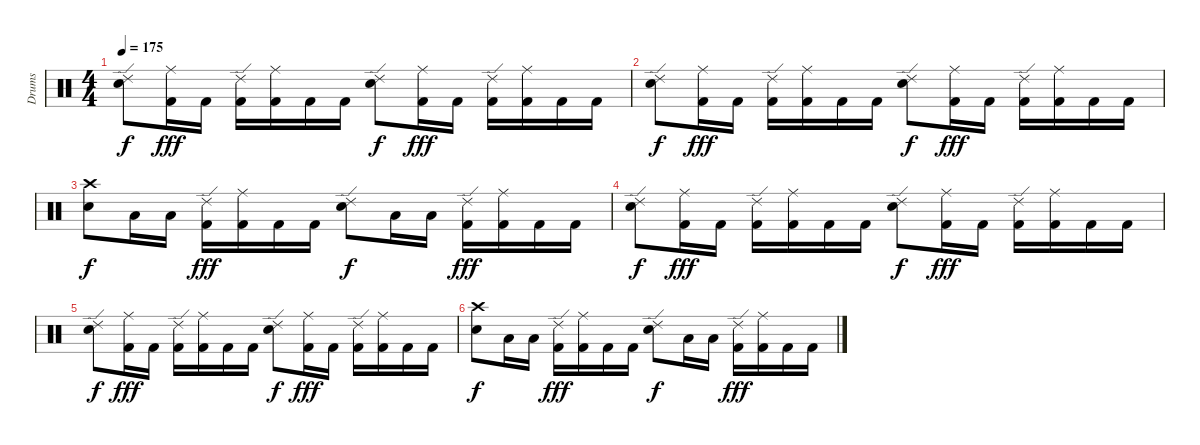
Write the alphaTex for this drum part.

\track ("Drums" "Drums") {instrument percussion}
\staff {score}
\articulation defaults
\ts (4 4)
\tempo 175
\clef neutral
\ks c
("Ride (edge) 2" "Electric Snare (hit)").8{dy f volume 10} ("Ride (middle)" "Kick (hit) 2").16{dy fff} "Kick (hit) 2".16 ("Ride (edge) 2" "Kick (hit) 2").16 ("Ride (middle)" "Kick (hit) 2").16 "Kick (hit) 2".16 "Kick (hit) 2".16 ("Ride (edge) 2" "Electric Snare (hit)").8{dy f} ("Ride (middle)" "Kick (hit) 2").16{dy fff} "Kick (hit) 2".16 ("Ride (edge) 2" "Kick (hit) 2").16 ("Ride (middle)" "Kick (hit) 2").16 "Kick (hit) 2".16 "Kick (hit) 2".16 |
("Ride (edge) 2" "Electric Snare (hit)").8{dy f} ("Ride (middle)" "Kick (hit) 2").16{dy fff} "Kick (hit) 2".16 ("Ride (edge) 2" "Kick (hit) 2").16 ("Ride (middle)" "Kick (hit) 2").16 "Kick (hit) 2".16 "Kick (hit) 2".16 ("Ride (edge) 2" "Electric Snare (hit)").8{dy f} ("Ride (middle)" "Kick (hit) 2").16{dy fff} "Kick (hit) 2".16 ("Ride (edge) 2" "Kick (hit) 2").16 ("Ride (middle)" "Kick (hit) 2").16 "Kick (hit) 2".16 "Kick (hit) 2".16 |
("Crash high (hit)" "Electric Snare (hit)").8{dy f volume 4} "Low Tom (hit)".16 "Low Tom (hit)".16 ("Ride (edge) 2" "Kick (hit) 2").16{dy fff} ("Ride (middle)" "Kick (hit) 2").16 "Kick (hit) 2".16 "Kick (hit) 2".16 ("Ride (edge) 2" "Electric Snare (hit)").8{dy f} "Low Tom (hit)".16 "Low Tom (hit)".16 ("Ride (edge) 2" "Kick (hit) 2").16{dy fff} ("Ride (middle)" "Kick (hit) 2").16 "Kick (hit) 2".16 "Kick (hit) 2".16 |
("Ride (edge) 2" "Electric Snare (hit)").8{dy f} ("Ride (middle)" "Kick (hit) 2").16{dy fff} "Kick (hit) 2".16 ("Ride (edge) 2" "Kick (hit) 2").16 ("Ride (middle)" "Kick (hit) 2").16 "Kick (hit) 2".16 "Kick (hit) 2".16 ("Ride (edge) 2" "Electric Snare (hit)").8{dy f} ("Ride (middle)" "Kick (hit) 2").16{dy fff} "Kick (hit) 2".16 ("Ride (edge) 2" "Kick (hit) 2").16 ("Ride (middle)" "Kick (hit) 2").16 "Kick (hit) 2".16 "Kick (hit) 2".16 |
("Ride (edge) 2" "Electric Snare (hit)").8{dy f volume 4} ("Ride (middle)" "Kick (hit) 2").16{dy fff} "Kick (hit) 2".16 ("Ride (edge) 2" "Kick (hit) 2").16 ("Ride (middle)" "Kick (hit) 2").16 "Kick (hit) 2".16 "Kick (hit) 2".16 ("Ride (edge) 2" "Electric Snare (hit)").8{dy f} ("Ride (middle)" "Kick (hit) 2").16{dy fff} "Kick (hit) 2".16 ("Ride (edge) 2" "Kick (hit) 2").16 ("Ride (middle)" "Kick (hit) 2").16 "Kick (hit) 2".16 "Kick (hit) 2".16 |
("Crash high (hit)" "Electric Snare (hit)").8{dy f volume 1} "Low Tom (hit)".16 "Low Tom (hit)".16 ("Ride (edge) 2" "Kick (hit) 2").16{dy fff} ("Ride (middle)" "Kick (hit) 2").16 "Kick (hit) 2".16 "Kick (hit) 2".16 ("Ride (edge) 2" "Electric Snare (hit)").8{dy f} "Low Tom (hit)".16 "Low Tom (hit)".16 ("Ride (edge) 2" "Kick (hit) 2").16{dy fff} ("Ride (middle)" "Kick (hit) 2").16 "Kick (hit) 2".16 "Kick (hit) 2".16
